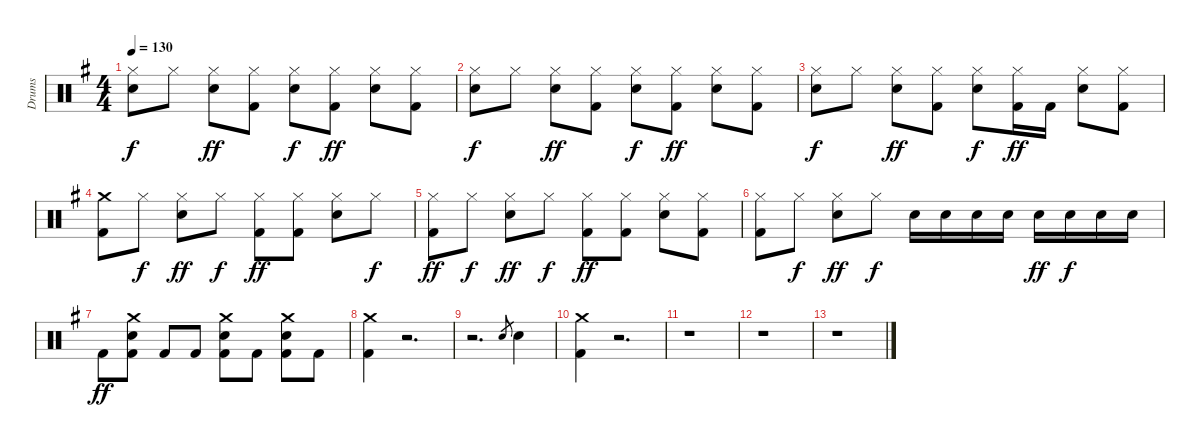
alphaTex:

\track ("Drums" "Drums") {instrument percussion}
\staff {score}
\articulation defaults
\ts (4 4)
\tempo 130
\clef neutral
\ks g
("Snare (hit) 2" "Hi-Hat (closed)").8{dy f} "Hi-Hat (closed)".8 ("Snare (hit) 2" "Hi-Hat (closed)").8{dy ff} ("Kick (hit) 2" "Hi-Hat (closed)").8 ("Snare (hit) 2" "Hi-Hat (closed)").8{dy f} ("Kick (hit) 2" "Hi-Hat (closed)").8{dy ff} ("Snare (hit) 2" "Hi-Hat (closed)").8 ("Kick (hit) 2" "Hi-Hat (closed)").8 |
("Snare (hit) 2" "Hi-Hat (closed)").8{dy f} "Hi-Hat (closed)".8 ("Snare (hit) 2" "Hi-Hat (closed)").8{dy ff} ("Kick (hit) 2" "Hi-Hat (closed)").8 ("Snare (hit) 2" "Hi-Hat (closed)").8{dy f} ("Kick (hit) 2" "Hi-Hat (closed)").8{dy ff} ("Snare (hit) 2" "Hi-Hat (closed)").8 ("Kick (hit) 2" "Hi-Hat (closed)").8 |
("Snare (hit) 2" "Hi-Hat (closed)").8{dy f} "Hi-Hat (closed)".8 ("Snare (hit) 2" "Hi-Hat (closed)").8{dy ff} ("Kick (hit) 2" "Hi-Hat (closed)").8 ("Snare (hit) 2" "Hi-Hat (closed)").8{dy f} ("Kick (hit) 2" "Hi-Hat (closed)").16{dy ff} "Kick (hit) 2".16 ("Snare (hit) 2" "Hi-Hat (closed)").8 ("Kick (hit) 2" "Hi-Hat (closed)").8 |
("Kick (hit) 2" "Crash medium (hit)").8 "Hi-Hat (closed)".8{dy f} ("Snare (hit) 2" "Hi-Hat (closed)").8{dy ff} "Hi-Hat (closed)".8{dy f} ("Kick (hit) 2" "Hi-Hat (closed)").8{dy ff} ("Kick (hit) 2" "Hi-Hat (closed)").8 ("Snare (hit) 2" "Hi-Hat (closed)").8 "Hi-Hat (closed)".8{dy f} |
("Kick (hit) 2" "Hi-Hat (closed)").8{dy ff} "Hi-Hat (closed)".8{dy f} ("Snare (hit) 2" "Hi-Hat (closed)").8{dy ff} "Hi-Hat (closed)".8{dy f} ("Kick (hit) 2" "Hi-Hat (closed)").8{dy ff} ("Kick (hit) 2" "Hi-Hat (closed)").8 ("Snare (hit) 2" "Hi-Hat (closed)").8 ("Kick (hit) 2" "Hi-Hat (closed)").8 |
("Kick (hit) 2" "Hi-Hat (closed)").8 "Hi-Hat (closed)".8{dy f} ("Snare (hit) 2" "Hi-Hat (closed)").8{dy ff} "Hi-Hat (closed)".8{dy f} "Snare (hit) 2".16 "Snare (hit) 2".16 "Snare (hit) 2".16 "Snare (hit) 2".16 "Snare (hit) 2".16{dy ff} "Snare (hit) 2".16{dy f} "Snare (hit) 2".16 "Snare (hit) 2".16 |
"Kick (hit) 2".8{dy ff} ("Snare (hit) 2" "Crash medium (hit)" "Kick (hit) 2").8 "Kick (hit) 2".8 "Kick (hit) 2".8 ("Snare (hit) 2" "Crash medium (hit)" "Kick (hit) 2").8 "Kick (hit) 2".8 ("Snare (hit) 2" "Crash medium (hit)" "Kick (hit) 2").8 "Kick (hit) 2".8 |
("Kick (hit) 2" "Crash medium (hit)").4 r.2{d} |
r.2{d} "Snare (hit) 2".8{gr} "Snare (hit) 2".4 |
("Kick (hit) 2" "Crash medium (hit)").4 r.2{d} |
r.1 |
r.1 |
r.1
